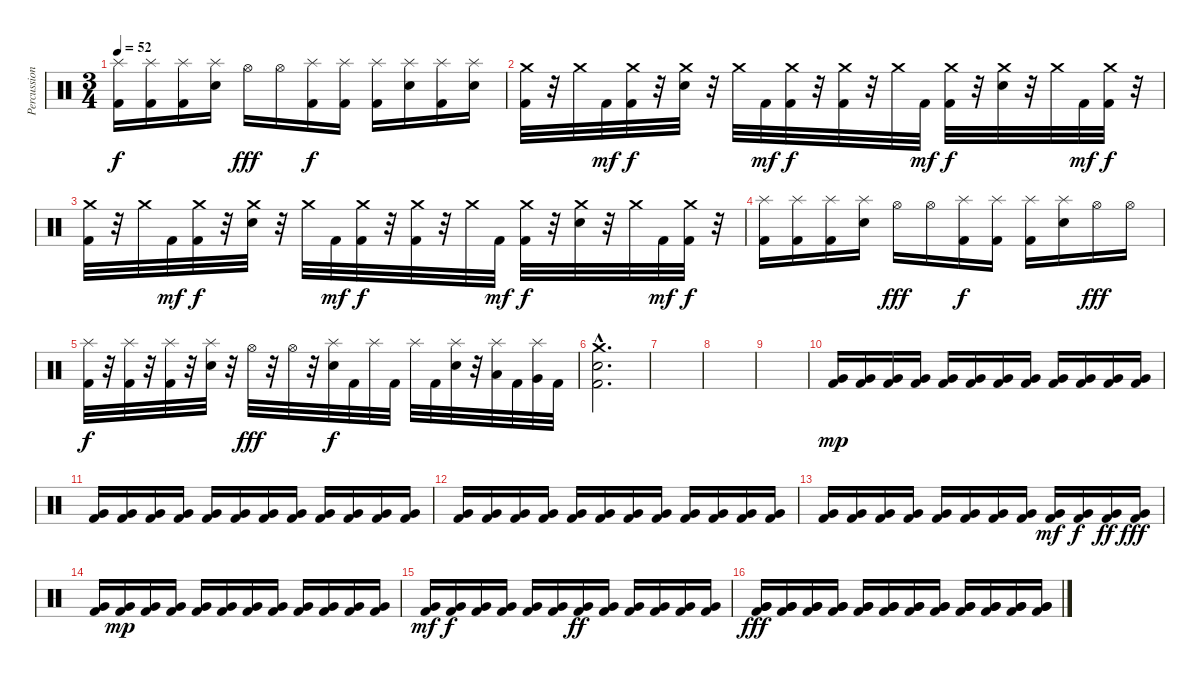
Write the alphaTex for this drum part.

\track ("Percussion" "Percussion") {instrument percussion}
\staff {score}
\articulation defaults
\ts (3 4)
\tempo 52
\clef neutral
\ks c
("Splash (hit)" "Kick (hit) 2").16{dy f} ("Splash (hit)" "Kick (hit) 2").16 ("Splash (hit)" "Kick (hit) 2").16 ("Splash (hit)" "Snare (hit) 2").16 "Hi-Hat (open)".16{dy fff} "Hi-Hat (open)".16 ("Splash (hit)" "Kick (hit) 2").16{dy f} ("Splash (hit)" "Kick (hit) 2").16 ("Splash (hit)" "Kick (hit) 2").16 ("Splash (hit)" "Snare (hit) 2").16 ("Splash (hit)" "Kick (hit) 2").16 ("Splash (hit)" "Snare (hit) 2").16 |
("Crash medium (hit)" "Kick (hit) 2").32 r.32 "Crash medium (hit)".32 "Kick (hit) 2".32{dy mf} ("Crash medium (hit)" "Kick (hit) 2").32{dy f} r.32 ("Crash medium (hit)" "Snare (hit) 2").32 r.32 "Crash medium (hit)".32 "Kick (hit) 2".32{dy mf} ("Crash medium (hit)" "Kick (hit) 2").32{dy f} r.32 ("Crash medium (hit)" "Kick (hit) 2").32 r.32 "Crash medium (hit)".32 "Kick (hit) 2".32{dy mf} ("Crash medium (hit)" "Kick (hit) 2").32{dy f} r.32 ("Crash medium (hit)" "Snare (hit) 2").32 r.32 "Crash medium (hit)".32 "Kick (hit) 2".32{dy mf} ("Crash medium (hit)" "Kick (hit) 2").32{dy f} r.32 |
("Crash medium (hit)" "Kick (hit) 2").32 r.32 "Crash medium (hit)".32 "Kick (hit) 2".32{dy mf} ("Crash medium (hit)" "Kick (hit) 2").32{dy f} r.32 ("Crash medium (hit)" "Snare (hit) 2").32 r.32 "Crash medium (hit)".32 "Kick (hit) 2".32{dy mf} ("Crash medium (hit)" "Kick (hit) 2").32{dy f} r.32 ("Crash medium (hit)" "Kick (hit) 2").32 r.32 "Crash medium (hit)".32 "Kick (hit) 2".32{dy mf} ("Crash medium (hit)" "Kick (hit) 2").32{dy f} r.32 ("Crash medium (hit)" "Snare (hit) 2").32 r.32 "Crash medium (hit)".32 "Kick (hit) 2".32{dy mf} ("Crash medium (hit)" "Kick (hit) 2").32{dy f} r.32 |
("Splash (hit)" "Kick (hit) 2").16 ("Splash (hit)" "Kick (hit) 2").16 ("Splash (hit)" "Kick (hit) 2").16 ("Splash (hit)" "Snare (hit) 2").16 "Hi-Hat (open)".16{dy fff} "Hi-Hat (open)".16 ("Splash (hit)" "Kick (hit) 2").16{dy f} ("Splash (hit)" "Kick (hit) 2").16 ("Splash (hit)" "Kick (hit) 2").16 ("Splash (hit)" "Snare (hit) 2").16 "Hi-Hat (open)".16{dy fff} "Hi-Hat (open)".16 |
("Splash (hit)" "Kick (hit) 2").32{dy f} r.32 ("Splash (hit)" "Kick (hit) 2").32 r.32 ("Splash (hit)" "Kick (hit) 2").32 r.32 ("Splash (hit)" "Snare (hit) 2").32 r.32 "Hi-Hat (open)".32{dy fff} r.32 "Hi-Hat (open)".32 r.32 ("Splash (hit)" "Snare (hit) 2").32{dy f} "Kick (hit) 2".32 "Splash (hit)".32 "Kick (hit) 2".32 "Splash (hit)".32 "Kick (hit) 2".32 ("Splash (hit)" "Snare (hit) 2").32 r.32 ("Splash (hit)" "Low Tom (hit)").32 "Kick (hit) 2".32 ("Splash (hit)" "Very Low Tom (hit)").32 "Kick (hit) 2".32 |
("Crash medium (hit)"{hac} "Snare (hit) 2"{hac} "Kick (hit) 2"{hac}).2{d} |
|
|
|
("Very Low Tom (hit)" "Kick (hit) 2").16{dy mp} ("Very Low Tom (hit)" "Kick (hit) 2").16 ("Very Low Tom (hit)" "Kick (hit) 2").16 ("Very Low Tom (hit)" "Kick (hit) 2").16 ("Very Low Tom (hit)" "Kick (hit) 2").16 ("Very Low Tom (hit)" "Kick (hit) 2").16 ("Very Low Tom (hit)" "Kick (hit) 2").16 ("Very Low Tom (hit)" "Kick (hit) 2").16 ("Very Low Tom (hit)" "Kick (hit) 2").16 ("Very Low Tom (hit)" "Kick (hit) 2").16 ("Very Low Tom (hit)" "Kick (hit) 2").16 ("Very Low Tom (hit)" "Kick (hit) 2").16 |
("Very Low Tom (hit)" "Kick (hit) 2").16 ("Very Low Tom (hit)" "Kick (hit) 2").16 ("Very Low Tom (hit)" "Kick (hit) 2").16 ("Very Low Tom (hit)" "Kick (hit) 2").16 ("Very Low Tom (hit)" "Kick (hit) 2").16 ("Very Low Tom (hit)" "Kick (hit) 2").16 ("Very Low Tom (hit)" "Kick (hit) 2").16 ("Very Low Tom (hit)" "Kick (hit) 2").16 ("Very Low Tom (hit)" "Kick (hit) 2").16 ("Very Low Tom (hit)" "Kick (hit) 2").16 ("Very Low Tom (hit)" "Kick (hit) 2").16 ("Very Low Tom (hit)" "Kick (hit) 2").16 |
("Very Low Tom (hit)" "Kick (hit) 2").16 ("Very Low Tom (hit)" "Kick (hit) 2").16 ("Very Low Tom (hit)" "Kick (hit) 2").16 ("Very Low Tom (hit)" "Kick (hit) 2").16 ("Very Low Tom (hit)" "Kick (hit) 2").16 ("Very Low Tom (hit)" "Kick (hit) 2").16 ("Very Low Tom (hit)" "Kick (hit) 2").16 ("Very Low Tom (hit)" "Kick (hit) 2").16 ("Very Low Tom (hit)" "Kick (hit) 2").16 ("Very Low Tom (hit)" "Kick (hit) 2").16 ("Very Low Tom (hit)" "Kick (hit) 2").16 ("Very Low Tom (hit)" "Kick (hit) 2").16 |
("Very Low Tom (hit)" "Kick (hit) 2").16 ("Very Low Tom (hit)" "Kick (hit) 2").16 ("Very Low Tom (hit)" "Kick (hit) 2").16 ("Very Low Tom (hit)" "Kick (hit) 2").16 ("Very Low Tom (hit)" "Kick (hit) 2").16 ("Very Low Tom (hit)" "Kick (hit) 2").16 ("Very Low Tom (hit)" "Kick (hit) 2").16 ("Very Low Tom (hit)" "Kick (hit) 2").16 ("Very Low Tom (hit)" "Kick (hit) 2").16{dy mf} ("Very Low Tom (hit)" "Kick (hit) 2").16{dy f} ("Very Low Tom (hit)" "Kick (hit) 2").16{dy ff} ("Very Low Tom (hit)" "Kick (hit) 2").16{dy fff} |
("Very Low Tom (hit)" "Kick (hit) 2").16 ("Very Low Tom (hit)" "Kick (hit) 2").16{dy mp} ("Very Low Tom (hit)" "Kick (hit) 2").16 ("Very Low Tom (hit)" "Kick (hit) 2").16 ("Very Low Tom (hit)" "Kick (hit) 2").16 ("Very Low Tom (hit)" "Kick (hit) 2").16 ("Very Low Tom (hit)" "Kick (hit) 2").16 ("Very Low Tom (hit)" "Kick (hit) 2").16 ("Very Low Tom (hit)" "Kick (hit) 2").16 ("Very Low Tom (hit)" "Kick (hit) 2").16 ("Very Low Tom (hit)" "Kick (hit) 2").16 ("Very Low Tom (hit)" "Kick (hit) 2").16 |
("Very Low Tom (hit)" "Kick (hit) 2").16{dy mf} ("Very Low Tom (hit)" "Kick (hit) 2").16{dy f} ("Very Low Tom (hit)" "Kick (hit) 2").16 ("Very Low Tom (hit)" "Kick (hit) 2").16 ("Very Low Tom (hit)" "Kick (hit) 2").16 ("Very Low Tom (hit)" "Kick (hit) 2").16 ("Very Low Tom (hit)" "Kick (hit) 2").16{dy ff} ("Very Low Tom (hit)" "Kick (hit) 2").16 ("Very Low Tom (hit)" "Kick (hit) 2").16 ("Very Low Tom (hit)" "Kick (hit) 2").16 ("Very Low Tom (hit)" "Kick (hit) 2").16 ("Very Low Tom (hit)" "Kick (hit) 2").16 |
("Very Low Tom (hit)" "Very Low Tom (hit)" "Kick (hit) 2").16{dy fff} ("Very Low Tom (hit)" "Very Low Tom (hit)" "Kick (hit) 2").16 ("Very Low Tom (hit)" "Very Low Tom (hit)" "Kick (hit) 2").16 ("Very Low Tom (hit)" "Very Low Tom (hit)" "Kick (hit) 2").16 ("Very Low Tom (hit)" "Very Low Tom (hit)" "Kick (hit) 2").16 ("Very Low Tom (hit)" "Very Low Tom (hit)" "Kick (hit) 2").16 ("Very Low Tom (hit)" "Very Low Tom (hit)" "Kick (hit) 2").16 ("Very Low Tom (hit)" "Very Low Tom (hit)" "Kick (hit) 2").16 ("Very Low Tom (hit)" "Very Low Tom (hit)" "Kick (hit) 2").16 ("Very Low Tom (hit)" "Very Low Tom (hit)" "Kick (hit) 2").16 ("Very Low Tom (hit)" "Very Low Tom (hit)" "Kick (hit) 2").16 ("Very Low Tom (hit)" "Very Low Tom (hit)" "Kick (hit) 2").16
